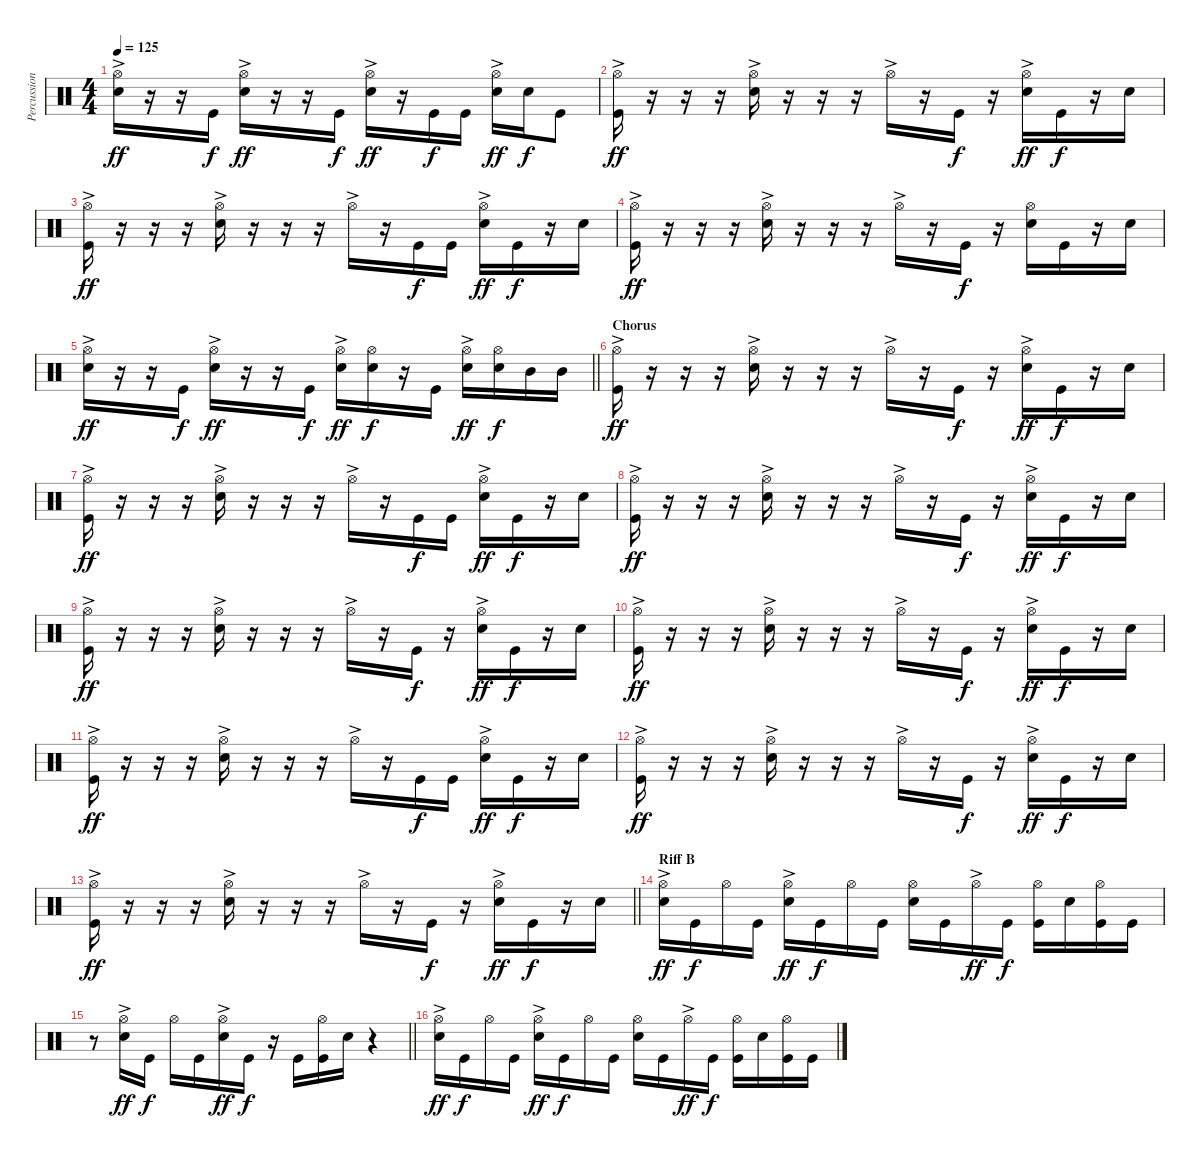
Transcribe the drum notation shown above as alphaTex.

\track ("Percussion" "Percussion") {instrument percussion}
\staff {score}
\articulation defaults
\ts (4 4)
\tempo 125
\clef neutral
\ks c
("Hi-Hat (open)"{ac} "Snare (hit) 2").16{dy ff} r.16 r.16 "Kick (hit)".16{dy f} ("Hi-Hat (open)"{ac} "Snare (hit) 2").16{dy ff} r.16 r.16 "Kick (hit)".16{dy f} ("Hi-Hat (open)"{ac} "Snare (hit) 2").16{dy ff} r.16 "Kick (hit)".16{dy f} "Kick (hit)".16 ("Hi-Hat (open)"{ac} "Snare (hit) 2").16{dy ff} "Snare (hit) 2".16{dy f} "Kick (hit)".8 |
("Hi-Hat (open)"{ac} "Kick (hit)").16{dy ff} r.16 r.16 r.16 ("Hi-Hat (open)"{ac} "Snare (hit) 2").16 r.16 r.16 r.16 "Hi-Hat (open)"{ac}.16 r.16 "Kick (hit)".16{dy f} r.16 ("Hi-Hat (open)"{ac} "Snare (hit) 2").16{dy ff} "Kick (hit)".16{dy f} r.16 "Snare (hit) 2".16 |
("Hi-Hat (open)"{ac} "Kick (hit)").16{dy ff} r.16 r.16 r.16 ("Hi-Hat (open)"{ac} "Snare (hit) 2").16 r.16 r.16 r.16 "Hi-Hat (open)"{ac}.16 r.16 "Kick (hit)".16{dy f} "Kick (hit)".16 ("Hi-Hat (open)"{ac} "Snare (hit) 2").16{dy ff} "Kick (hit)".16{dy f} r.16 "Snare (hit) 2".16 |
("Hi-Hat (open)"{ac} "Kick (hit)").16{dy ff} r.16 r.16 r.16 ("Hi-Hat (open)"{ac} "Snare (hit) 2").16 r.16 r.16 r.16 "Hi-Hat (open)"{ac}.16 r.16 "Kick (hit)".16{dy f} r.16 ("Hi-Hat (open)" "Snare (hit) 2").16 "Kick (hit)".16 r.16 "Snare (hit) 2".16 |
\barLineRight lightlight
("Hi-Hat (open)"{ac} "Snare (hit) 2").16{dy ff} r.16 r.16 "Kick (hit)".16{dy f} ("Hi-Hat (open)"{ac} "Snare (hit) 2").16{dy ff} r.16 r.16 "Kick (hit)".16{dy f} ("Hi-Hat (open)"{ac} "Snare (hit) 2").16{dy ff} ("Hi-Hat (open)" "Snare (hit) 2").16{dy f} r.16 "Kick (hit)".16 ("Hi-Hat (open)"{ac} "Snare (hit) 2").16{dy ff} ("Hi-Hat (open)" "Snare (hit) 2").16{dy f} "Mid Tom (hit)".16 "Mid Tom (hit)".16 |
\section ("" "Chorus")
("Hi-Hat (open)"{ac} "Kick (hit)").16{dy ff} r.16 r.16 r.16 ("Hi-Hat (open)"{ac} "Snare (hit) 2").16 r.16 r.16 r.16 "Hi-Hat (open)"{ac}.16 r.16 "Kick (hit)".16{dy f} r.16 ("Hi-Hat (open)"{ac} "Snare (hit) 2").16{dy ff} "Kick (hit)".16{dy f} r.16 "Snare (hit) 2".16 |
("Hi-Hat (open)"{ac} "Kick (hit)").16{dy ff} r.16 r.16 r.16 ("Hi-Hat (open)"{ac} "Snare (hit) 2").16 r.16 r.16 r.16 "Hi-Hat (open)"{ac}.16 r.16 "Kick (hit)".16{dy f} "Kick (hit)".16 ("Hi-Hat (open)"{ac} "Snare (hit) 2").16{dy ff} "Kick (hit)".16{dy f} r.16 "Snare (hit) 2".16 |
("Hi-Hat (open)"{ac} "Kick (hit)").16{dy ff} r.16 r.16 r.16 ("Hi-Hat (open)"{ac} "Snare (hit) 2").16 r.16 r.16 r.16 "Hi-Hat (open)"{ac}.16 r.16 "Kick (hit)".16{dy f} r.16 ("Hi-Hat (open)"{ac} "Snare (hit) 2").16{dy ff} "Kick (hit)".16{dy f} r.16 "Snare (hit) 2".16 |
("Hi-Hat (open)"{ac} "Kick (hit)").16{dy ff} r.16 r.16 r.16 ("Hi-Hat (open)"{ac} "Snare (hit) 2").16 r.16 r.16 r.16 "Hi-Hat (open)"{ac}.16 r.16 "Kick (hit)".16{dy f} r.16 ("Hi-Hat (open)"{ac} "Snare (hit) 2").16{dy ff} "Kick (hit)".16{dy f} r.16 "Snare (hit) 2".16 |
("Hi-Hat (open)"{ac} "Kick (hit)").16{dy ff} r.16 r.16 r.16 ("Hi-Hat (open)"{ac} "Snare (hit) 2").16 r.16 r.16 r.16 "Hi-Hat (open)"{ac}.16 r.16 "Kick (hit)".16{dy f} r.16 ("Hi-Hat (open)"{ac} "Snare (hit) 2").16{dy ff} "Kick (hit)".16{dy f} r.16 "Snare (hit) 2".16 |
("Hi-Hat (open)"{ac} "Kick (hit)").16{dy ff} r.16 r.16 r.16 ("Hi-Hat (open)"{ac} "Snare (hit) 2").16 r.16 r.16 r.16 "Hi-Hat (open)"{ac}.16 r.16 "Kick (hit)".16{dy f} "Kick (hit)".16 ("Hi-Hat (open)"{ac} "Snare (hit) 2").16{dy ff} "Kick (hit)".16{dy f} r.16 "Snare (hit) 2".16 |
("Hi-Hat (open)"{ac} "Kick (hit)").16{dy ff} r.16 r.16 r.16 ("Hi-Hat (open)"{ac} "Snare (hit) 2").16 r.16 r.16 r.16 "Hi-Hat (open)"{ac}.16 r.16 "Kick (hit)".16{dy f} r.16 ("Hi-Hat (open)"{ac} "Snare (hit) 2").16{dy ff} "Kick (hit)".16{dy f} r.16 "Snare (hit) 2".16 |
\barLineRight lightlight
("Hi-Hat (open)"{ac} "Kick (hit)").16{dy ff} r.16 r.16 r.16 ("Hi-Hat (open)"{ac} "Snare (hit) 2").16 r.16 r.16 r.16 "Hi-Hat (open)"{ac}.16 r.16 "Kick (hit)".16{dy f} r.16 ("Hi-Hat (open)"{ac} "Snare (hit) 2").16{dy ff} "Kick (hit)".16{dy f} r.16 "Snare (hit) 2".16 |
\section ("" "Riff B")
("Hi-Hat (open)"{ac} "Snare (hit) 2").16{dy ff} "Kick (hit)".16{dy f} "Hi-Hat (open)".16 "Kick (hit)".16 ("Hi-Hat (open)"{ac} "Snare (hit) 2").16{dy ff} "Kick (hit)".16{dy f} "Hi-Hat (open)".16 "Kick (hit)".16 ("Hi-Hat (open)" "Snare (hit) 2").16 "Kick (hit)".16 "Hi-Hat (open)"{ac}.16{dy ff} "Kick (hit)".16{dy f} ("Hi-Hat (open)" "Kick (hit)").16 "Snare (hit) 2".16 ("Hi-Hat (open)" "Kick (hit)").16 "Kick (hit)".16 |
\barLineRight lightlight
r.8 ("Hi-Hat (open)"{ac} "Snare (hit) 2").16{dy ff} "Kick (hit)".16{dy f} "Hi-Hat (open)".16 "Kick (hit)".16 ("Hi-Hat (open)"{ac} "Snare (hit) 2").16{dy ff} "Kick (hit)".16{dy f} r.16 "Kick (hit)".16 ("Hi-Hat (open)" "Kick (hit)").16 "Snare (hit) 2".16 r.4 |
("Hi-Hat (open)"{ac} "Snare (hit) 2").16{dy ff} "Kick (hit)".16{dy f} "Hi-Hat (open)".16 "Kick (hit)".16 ("Hi-Hat (open)"{ac} "Snare (hit) 2").16{dy ff} "Kick (hit)".16{dy f} "Hi-Hat (open)".16 "Kick (hit)".16 ("Hi-Hat (open)" "Snare (hit) 2").16 "Kick (hit)".16 "Hi-Hat (open)"{ac}.16{dy ff} "Kick (hit)".16{dy f} ("Hi-Hat (open)" "Kick (hit)").16 "Snare (hit) 2".16 ("Hi-Hat (open)" "Kick (hit)").16 "Kick (hit)".16
